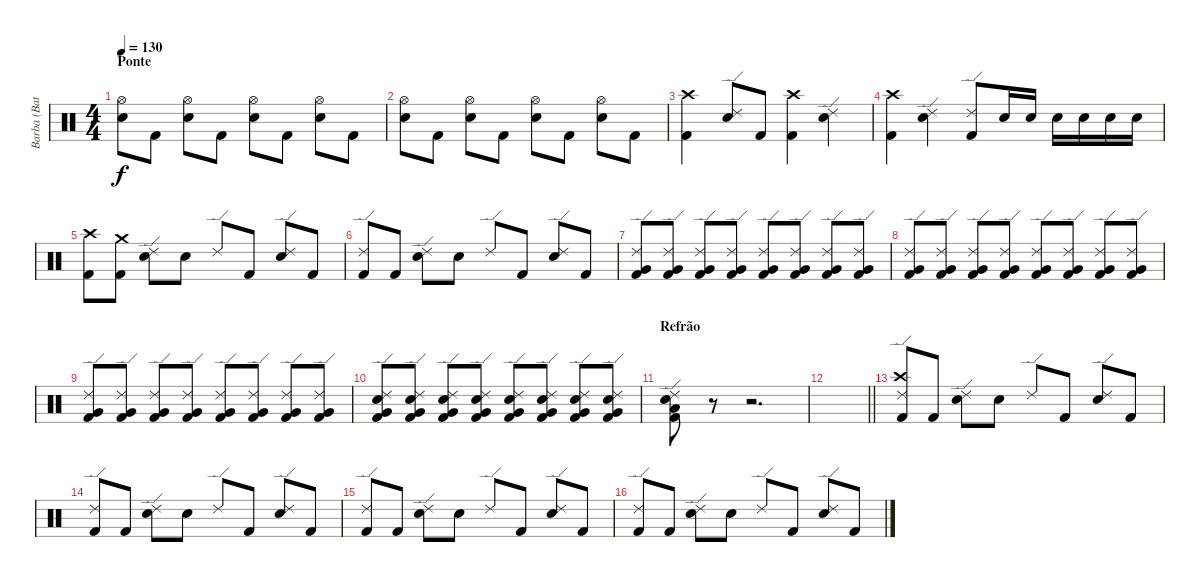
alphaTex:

\track ("Barba (Bateria)" "Barba (Bat") {instrument percussion}
\staff {score}
\articulation defaults
\ts (4 4)
\section ("" "Ponte")
\tempo 130
\clef neutral
\ks c
("Hi-Hat (open)" "Electric Snare (hit)").8{dy f} "Kick (hit) 2".8 ("Hi-Hat (open)" "Electric Snare (hit)").8 "Kick (hit) 2".8 ("Hi-Hat (open)" "Electric Snare (hit)").8 "Kick (hit) 2".8 ("Hi-Hat (open)" "Electric Snare (hit)").8 "Kick (hit) 2".8 |
("Hi-Hat (open)" "Electric Snare (hit)").8 "Kick (hit) 2".8 ("Hi-Hat (open)" "Electric Snare (hit)").8 "Kick (hit) 2".8 ("Hi-Hat (open)" "Electric Snare (hit)").8 "Kick (hit) 2".8 ("Hi-Hat (open)" "Electric Snare (hit)").8 "Kick (hit) 2".8 |
("Crash high (hit)" "Kick (hit) 2").4 ("Ride (edge) 2" "Electric Snare (hit)").8 "Kick (hit) 2".8 ("Crash high (hit)" "Kick (hit) 2").4 ("Ride (edge) 2" "Electric Snare (hit)").4 |
("Crash high (hit)" "Kick (hit) 2").4 ("Ride (edge) 2" "Electric Snare (hit)").4 ("Ride (edge) 2" "Kick (hit) 2").8 "Electric Snare (hit)".16 "Electric Snare (hit)".16 "Electric Snare (hit)".16 "Electric Snare (hit)".16 "Electric Snare (hit)".16 "Electric Snare (hit)".16 |
("Crash high (hit)" "Kick (hit) 2").8 ("Crash medium (hit)" "Kick (hit) 2").8 ("Ride (edge) 2" "Electric Snare (hit)").8 "Electric Snare (hit)".8 "Ride (edge) 2".8 "Kick (hit) 2".8 ("Ride (edge) 2" "Electric Snare (hit)").8 "Kick (hit) 2".8 |
("Ride (edge) 2" "Kick (hit) 2").8 "Kick (hit) 2".8 ("Ride (edge) 2" "Electric Snare (hit)").8 "Electric Snare (hit)".8 "Ride (edge) 2".8 "Kick (hit) 2".8 ("Ride (edge) 2" "Electric Snare (hit)").8 "Kick (hit) 2".8 |
("Ride (edge) 2" "Very Low Tom (hit)" "Kick (hit) 2").8{volume 7} ("Ride (edge) 2" "Very Low Tom (hit)" "Kick (hit) 2").8 ("Ride (edge) 2" "Very Low Tom (hit)" "Kick (hit) 2").8 ("Ride (edge) 2" "Very Low Tom (hit)" "Kick (hit) 2").8 ("Ride (edge) 2" "Very Low Tom (hit)" "Kick (hit) 2").8 ("Ride (edge) 2" "Very Low Tom (hit)" "Kick (hit) 2").8 ("Ride (edge) 2" "Very Low Tom (hit)" "Kick (hit) 2").8 ("Ride (edge) 2" "Very Low Tom (hit)" "Kick (hit) 2").8 |
("Ride (edge) 2" "Very Low Tom (hit)" "Kick (hit) 2").8{volume 10} ("Ride (edge) 2" "Very Low Tom (hit)" "Kick (hit) 2").8 ("Ride (edge) 2" "Very Low Tom (hit)" "Kick (hit) 2").8 ("Ride (edge) 2" "Very Low Tom (hit)" "Kick (hit) 2").8 ("Ride (edge) 2" "Very Low Tom (hit)" "Kick (hit) 2").8 ("Ride (edge) 2" "Very Low Tom (hit)" "Kick (hit) 2").8 ("Ride (edge) 2" "Very Low Tom (hit)" "Kick (hit) 2").8 ("Ride (edge) 2" "Very Low Tom (hit)" "Kick (hit) 2").8 |
("Ride (edge) 2" "Very Low Tom (hit)" "Kick (hit) 2").8{volume 12} ("Ride (edge) 2" "Very Low Tom (hit)" "Kick (hit) 2").8 ("Ride (edge) 2" "Very Low Tom (hit)" "Kick (hit) 2").8 ("Ride (edge) 2" "Very Low Tom (hit)" "Kick (hit) 2").8 ("Ride (edge) 2" "Very Low Tom (hit)" "Kick (hit) 2").8 ("Ride (edge) 2" "Very Low Tom (hit)" "Kick (hit) 2").8 ("Ride (edge) 2" "Very Low Tom (hit)" "Kick (hit) 2").8 ("Ride (edge) 2" "Very Low Tom (hit)" "Kick (hit) 2").8 |
("Ride (edge) 2" "Electric Snare (hit)" "Very Low Tom (hit)" "Kick (hit) 2").8{volume 14} ("Ride (edge) 2" "Electric Snare (hit)" "Very Low Tom (hit)" "Kick (hit) 2").8 ("Ride (edge) 2" "Electric Snare (hit)" "Very Low Tom (hit)" "Kick (hit) 2").8 ("Ride (edge) 2" "Electric Snare (hit)" "Very Low Tom (hit)" "Kick (hit) 2").8 ("Ride (edge) 2" "Electric Snare (hit)" "Very Low Tom (hit)" "Kick (hit) 2").8{volume 16} ("Ride (edge) 2" "Electric Snare (hit)" "Very Low Tom (hit)" "Kick (hit) 2").8 ("Ride (edge) 2" "Electric Snare (hit)" "Very Low Tom (hit)" "Kick (hit) 2").8 ("Ride (edge) 2" "Electric Snare (hit)" "Very Low Tom (hit)" "Kick (hit) 2").8 |
\section ("" "Refrão")
("Ride (edge) 2" "Electric Snare (hit)" "Low Tom (hit)" "Kick (hit) 2").8 r.8 r.2{d} |
\barLineRight lightlight
|
("Crash high (hit)" "Ride (edge) 2" "Kick (hit) 2").8 "Kick (hit) 2".8 ("Ride (edge) 2" "Electric Snare (hit)").8 "Electric Snare (hit)".8 "Ride (edge) 2".8 "Kick (hit) 2".8 ("Ride (edge) 2" "Electric Snare (hit)").8 "Kick (hit) 2".8 |
("Ride (edge) 2" "Kick (hit) 2").8 "Kick (hit) 2".8 ("Ride (edge) 2" "Electric Snare (hit)").8 "Electric Snare (hit)".8 "Ride (edge) 2".8 "Kick (hit) 2".8 ("Ride (edge) 2" "Electric Snare (hit)").8 "Kick (hit) 2".8 |
("Ride (edge) 2" "Kick (hit) 2").8 "Kick (hit) 2".8 ("Ride (edge) 2" "Electric Snare (hit)").8 "Electric Snare (hit)".8 "Ride (edge) 2".8 "Kick (hit) 2".8 ("Ride (edge) 2" "Electric Snare (hit)").8 "Kick (hit) 2".8 |
("Ride (edge) 2" "Kick (hit) 2").8 "Kick (hit) 2".8 ("Ride (edge) 2" "Electric Snare (hit)").8 "Electric Snare (hit)".8 "Ride (edge) 2".8 "Kick (hit) 2".8 ("Ride (edge) 2" "Electric Snare (hit)").8 "Kick (hit) 2".8
